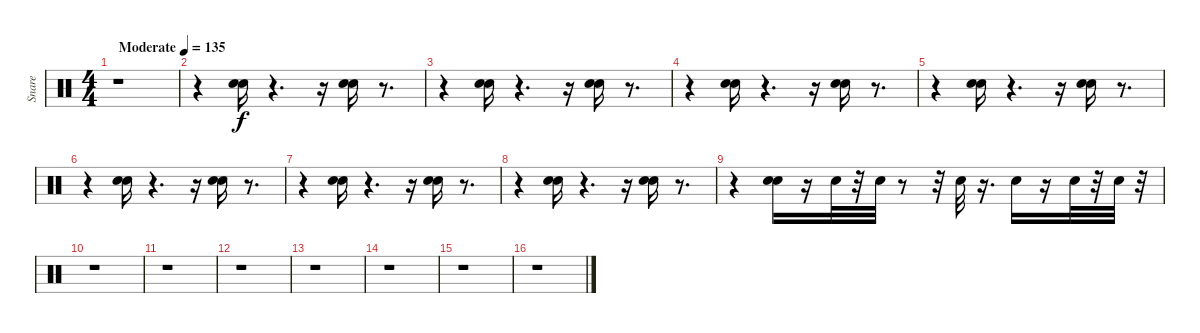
\track ("Snare" "Snare") {instrument percussion}
\staff {score}
\articulation defaults
\ts (4 4)
\tempo (135 "Moderate")
\clef neutral
\ks c
r.1{dy f} |
r.4 ("Hand Clap (hit)" "Snare (hit) 2").16 r.4{d} r.16 ("Hand Clap (hit)" "Snare (hit) 2").16 r.8{d} |
r.4 ("Snare (hit) 2" "Hand Clap (hit)").16 r.4{d} r.16 ("Snare (hit) 2" "Hand Clap (hit)").16 r.8{d} |
r.4 ("Hand Clap (hit)" "Snare (hit) 2").16 r.4{d} r.16 ("Hand Clap (hit)" "Snare (hit) 2").16 r.8{d} |
r.4 ("Hand Clap (hit)" "Snare (hit) 2").16 r.4{d} r.16 ("Hand Clap (hit)" "Snare (hit) 2").16 r.8{d} |
r.4 ("Snare (hit) 2" "Hand Clap (hit)").16 r.4{d} r.16 ("Hand Clap (hit)" "Snare (hit) 2").16 r.8{d} |
r.4 ("Hand Clap (hit)" "Snare (hit) 2").16 r.4{d} r.16 ("Hand Clap (hit)" "Snare (hit) 2").16 r.8{d} |
r.4 ("Hand Clap (hit)" "Snare (hit) 2").16 r.4{d} r.16 ("Snare (hit) 2" "Hand Clap (hit)").16 r.8{d} |
r.4 ("Snare (hit) 2" "Hand Clap (hit)").16 r.16 "Snare (hit) 2".32 r.32 "Snare (hit) 2".32 r.8 r.32 "Snare (hit) 2".32 r.16{d} "Snare (hit) 2".16 r.16 "Snare (hit) 2".32 r.32 "Snare (hit) 2".32 r.32 |
r.1 |
r.1 |
r.1 |
r.1 |
r.1 |
r.1 |
r.1
